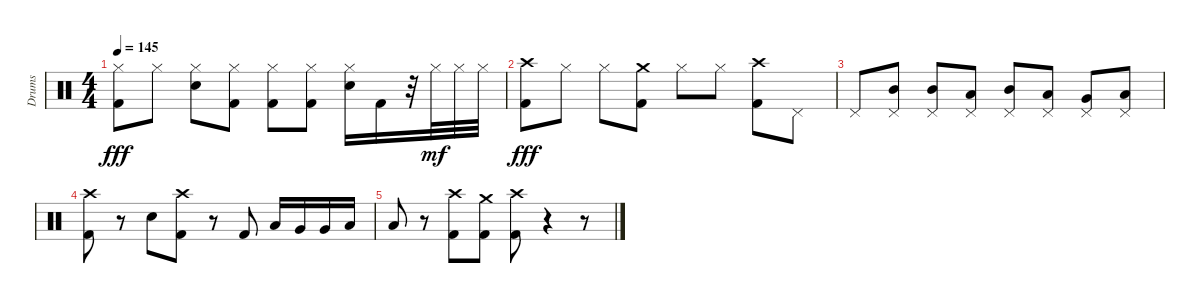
\track ("Drums" "Drums") {instrument percussion}
\staff {score}
\articulation defaults
\ts (4 4)
\tempo 145
\clef neutral
\ks c
("Hi-Hat (closed)" "Kick (hit) 2").8{dy fff} "Hi-Hat (closed)".8 ("Hi-Hat (closed)" "Snare (hit) 2").8 ("Hi-Hat (closed)" "Kick (hit) 2").8 ("Hi-Hat (closed)" "Kick (hit) 2").8 ("Hi-Hat (closed)" "Kick (hit) 2").8 ("Hi-Hat (closed)" "Snare (hit) 2").16 "Kick (hit) 2".16 r.32 "Hi-Hat (closed)".32{dy mf} "Hi-Hat (closed)".32 "Hi-Hat (closed)".32 |
("Crash high (hit)" "Kick (hit) 2").8{dy fff} "Hi-Hat (closed)".8 "Hi-Hat (closed)".8 ("Crash medium (hit)" "Kick (hit) 2").8 "Hi-Hat (closed)".8 "Hi-Hat (closed)".8 ("Crash high (hit)" "Kick (hit) 2").8 "Pedal Hi-Hat (hit)".8 |
"Pedal Hi-Hat (hit)".8 ("Pedal Hi-Hat (hit)" "Mid Tom (hit)").8 ("Pedal Hi-Hat (hit)" "Mid Tom (hit)").8 ("Pedal Hi-Hat (hit)" "Low Tom (hit)").8 ("Pedal Hi-Hat (hit)" "Mid Tom (hit)").8 ("Pedal Hi-Hat (hit)" "Low Tom (hit)").8 ("Pedal Hi-Hat (hit)" "Very Low Tom (hit)").8 ("Pedal Hi-Hat (hit)" "Low Floor Tom (hit)").8 |
("Crash high (hit)" "Kick (hit) 2").8 r.8 "Snare (hit) 2".8 ("Crash high (hit)" "Kick (hit) 2").8 r.8 "Kick (hit) 2".8 "Low Tom (hit)".16 "Very Low Tom (hit)".16 "Very Low Tom (hit)".16 "Low Floor Tom (hit)".16 |
"Low Floor Tom (hit)".8 r.8 ("Crash high (hit)" "Kick (hit) 2").8 ("Crash medium (hit)" "Kick (hit) 2").8 ("Crash high (hit)" "Kick (hit) 2").8 r.4 r.8
